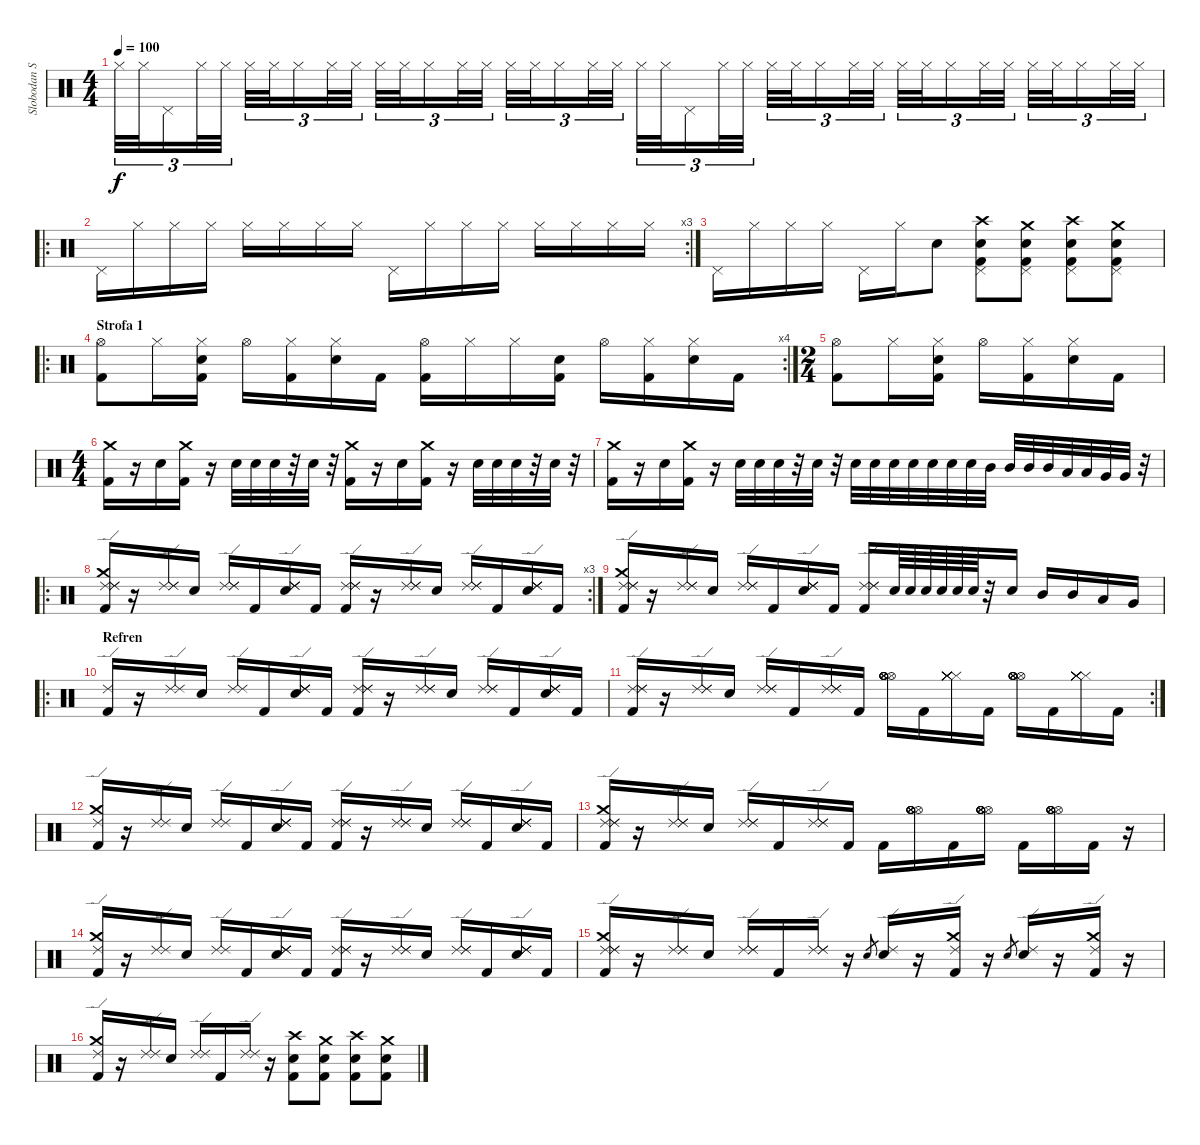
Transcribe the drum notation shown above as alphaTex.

\track ("Slobodan Stojanovic" "Slobodan S") {instrument percussion}
\staff {score}
\articulation defaults
\ts (4 4)
\tempo 100
\clef neutral
\ks c "Hi-Hat (closed)".32{tu (3 2) dy f} "Hi-Hat (closed)".32{tu (3 2)} "Pedal Hi-Hat (hit)".16{tu (3 2)} "Hi-Hat (closed)".32{tu (3 2)} "Hi-Hat (closed)".32{tu (3 2)} "Hi-Hat (closed)".32{tu (3 2)} "Hi-Hat (closed)".32{tu (3 2)} "Hi-Hat (closed)".16{tu (3 2)} "Hi-Hat (closed)".32{tu (3 2)} "Hi-Hat (closed)".32{tu (3 2)} "Hi-Hat (closed)".32{tu (3 2)} "Hi-Hat (closed)".32{tu (3 2)} "Hi-Hat (closed)".16{tu (3 2)} "Hi-Hat (closed)".32{tu (3 2)} "Hi-Hat (closed)".32{tu (3 2)} "Hi-Hat (closed)".32{tu (3 2)} "Hi-Hat (closed)".32{tu (3 2)} "Hi-Hat (closed)".16{tu (3 2)} "Hi-Hat (closed)".32{tu (3 2)} "Hi-Hat (closed)".32{tu (3 2)} "Hi-Hat (closed)".32{tu (3 2)} "Hi-Hat (closed)".32{tu (3 2)} "Pedal Hi-Hat (hit)".16{tu (3 2)} "Hi-Hat (closed)".32{tu (3 2)} "Hi-Hat (closed)".32{tu (3 2)} "Hi-Hat (closed)".32{tu (3 2)} "Hi-Hat (closed)".32{tu (3 2)} "Hi-Hat (closed)".16{tu (3 2)} "Hi-Hat (closed)".32{tu (3 2)} "Hi-Hat (closed)".32{tu (3 2)} "Hi-Hat (closed)".32{tu (3 2)} "Hi-Hat (closed)".32{tu (3 2)} "Hi-Hat (closed)".16{tu (3 2)} "Hi-Hat (closed)".32{tu (3 2)} "Hi-Hat (closed)".32{tu (3 2)} "Hi-Hat (closed)".32{tu (3 2)} "Hi-Hat (closed)".32{tu (3 2)} "Hi-Hat (closed)".16{tu (3 2)} "Hi-Hat (closed)".32{tu (3 2)} "Hi-Hat (closed)".32{tu (3 2)}
|
\ro
\rc 3 "Pedal Hi-Hat (hit)".16 "Hi-Hat (closed)".16 "Hi-Hat (closed)".16 "Hi-Hat (closed)".16 "Hi-Hat (closed)".16 "Hi-Hat (closed)".16 "Hi-Hat (closed)".16 "Hi-Hat (closed)".16 "Pedal Hi-Hat (hit)".16 "Hi-Hat (closed)".16 "Hi-Hat (closed)".16 "Hi-Hat (closed)".16 "Hi-Hat (closed)".16 "Hi-Hat (closed)".16 "Hi-Hat (closed)".16 "Hi-Hat (closed)".16
|
"Pedal Hi-Hat (hit)".16 "Hi-Hat (closed)".16 "Hi-Hat (closed)".16 "Hi-Hat (closed)".16 "Pedal Hi-Hat (hit)".16 "Hi-Hat (closed)".16 "Snare (hit) 2".8 ("Pedal Hi-Hat (hit)" "Kick (hit) 2" "Snare (hit) 2" "Crash high (hit)").8 ("Pedal Hi-Hat (hit)" "Kick (hit) 2" "Snare (hit) 2" "Crash medium (hit)").8 ("Pedal Hi-Hat (hit)" "Kick (hit) 2" "Snare (hit) 2" "Crash high (hit)").8 ("Pedal Hi-Hat (hit)" "Kick (hit) 2" "Snare (hit) 2" "Crash medium (hit)").8 |
\ro
\rc 4
\section ("" "Strofa 1")
("Hi-Hat (open)" "Kick (hit) 2").8 "Hi-Hat (closed)".16 ("Hi-Hat (closed)" "Snare (hit) 2" "Kick (hit) 2").16 "Hi-Hat (open)".16 ("Hi-Hat (closed)" "Kick (hit) 2").16 ("Hi-Hat (closed)" "Snare (hit) 2").16 "Kick (hit) 2".16 ("Hi-Hat (open)" "Kick (hit) 2").16 "Hi-Hat (closed)".16 "Hi-Hat (closed)".16 ("Snare (hit) 2" "Kick (hit) 2").16 "Hi-Hat (open)".16 ("Hi-Hat (closed)" "Kick (hit) 2").16 ("Hi-Hat (closed)" "Snare (hit) 2").16 "Kick (hit) 2".16 |
\ts (2 4)
("Hi-Hat (open)" "Kick (hit) 2").8 "Hi-Hat (closed)".16 ("Hi-Hat (closed)" "Snare (hit) 2" "Kick (hit) 2").16 "Hi-Hat (open)".16 ("Hi-Hat (closed)" "Kick (hit) 2").16 ("Hi-Hat (closed)" "Snare (hit) 2").16 "Kick (hit) 2".16 |
\ts (4 4)
("Kick (hit) 2" "Crash medium (hit)").16 r.16 "Snare (hit) 2".16 ("Kick (hit) 2" "Crash medium (hit)").16 r.16 "Snare (hit) 2".32 "Snare (hit) 2".32 "Snare (hit) 2".32 r.32 "Snare (hit) 2".32 r.32 ("Kick (hit) 2" "Crash medium (hit)").16 r.16 "Snare (hit) 2".16 ("Kick (hit) 2" "Crash medium (hit)").16 r.16 "Snare (hit) 2".32 "Snare (hit) 2".32 "Snare (hit) 2".32 r.32 "Snare (hit) 2".32 r.32 |
("Kick (hit) 2" "Crash medium (hit)").16 r.16 "Snare (hit) 2".16 ("Kick (hit) 2" "Crash medium (hit)").16 r.16 "Snare (hit) 2".32 "Snare (hit) 2".32 "Snare (hit) 2".32 r.32 "Snare (hit) 2".32 r.32 "Snare (hit) 2".32 "Snare (hit) 2".32 "Snare (hit) 2".32 "Snare (hit) 2".32 "Snare (hit) 2".32 "Snare (hit) 2".32 "Snare (hit) 2".32 "Mid Tom (hit)".32 "Mid Tom (hit)".32 "Mid Tom (hit)".32 "Mid Tom (hit)".32 "Low Tom (hit)".32 "Low Tom (hit)".32 "Very Low Tom (hit)".32 "Very Low Tom (hit)".32 r.32 |
\ro
\rc 3
("Crash medium (hit)" "Kick (hit) 2" "Ride (edge) 2" "Ride (edge) 2" "Ride (edge) 2").16 r.16 ("Ride (edge) 2" "Ride (edge) 2" "Ride (edge) 2").16 "Snare (hit) 2".16 ("Ride (edge) 2" "Ride (edge) 2" "Ride (edge) 2").16 "Kick (hit) 2".16 ("Snare (hit) 2" "Ride (edge) 2" "Ride (edge) 2" "Ride (edge) 2").16 "Kick (hit) 2".16 ("Kick (hit) 2" "Ride (edge) 2" "Ride (edge) 2" "Ride (edge) 2").16 r.16 ("Ride (edge) 2" "Ride (edge) 2" "Ride (edge) 2").16 "Snare (hit) 2".16 ("Ride (edge) 2" "Ride (edge) 2" "Ride (edge) 2").16 "Kick (hit) 2".16 ("Snare (hit) 2" "Ride (edge) 2" "Ride (edge) 2" "Ride (edge) 2").16 "Kick (hit) 2".16 |
("Crash medium (hit)" "Kick (hit) 2" "Ride (edge) 2" "Ride (edge) 2" "Ride (edge) 2").16 r.16 ("Ride (edge) 2" "Ride (edge) 2" "Ride (edge) 2").16 "Snare (hit) 2".16 ("Ride (edge) 2" "Ride (edge) 2" "Ride (edge) 2").16 "Kick (hit) 2".16 ("Snare (hit) 2" "Ride (edge) 2" "Ride (edge) 2" "Ride (edge) 2").16 "Kick (hit) 2".16 ("Kick (hit) 2" "Ride (edge) 2" "Ride (edge) 2" "Ride (edge) 2").16 "Snare (hit) 2".64 "Snare (hit) 2".64 "Snare (hit) 2".64 "Snare (hit) 2".64 "Snare (hit) 2".64 "Snare (hit) 2".64 r.32 "Snare (hit) 2".16 "Mid Tom (hit)".16 "Mid Tom (hit)".16 "Low Tom (hit)".16 "Very Low Tom (hit)".16 |
\ro
\section ("" "Refren")
("Kick (hit) 2" "Ride (edge) 2").16 r.16 ("Ride (edge) 2" "Ride (edge) 2").16 "Snare (hit) 2".16 ("Ride (edge) 2" "Ride (edge) 2").16 "Kick (hit) 2".16 ("Snare (hit) 2" "Ride (edge) 2" "Ride (edge) 2" "Ride (edge) 2").16 "Kick (hit) 2".16 ("Kick (hit) 2" "Ride (edge) 2" "Ride (edge) 2" "Ride (edge) 2").16 r.16 ("Ride (edge) 2" "Ride (edge) 2" "Ride (edge) 2").16 "Snare (hit) 2".16 ("Ride (edge) 2" "Ride (edge) 2" "Ride (edge) 2").16 "Kick (hit) 2".16 ("Snare (hit) 2" "Ride (edge) 2" "Ride (edge) 2" "Ride (edge) 2").16 "Kick (hit) 2".16 |
\rc 2
("Kick (hit) 2" "Ride (edge) 2" "Ride (edge) 2" "Ride (edge) 2").16 r.16 ("Ride (edge) 2" "Ride (edge) 2" "Ride (edge) 2").16 "Snare (hit) 2".16 ("Ride (edge) 2" "Ride (edge) 2" "Ride (edge) 2").16 "Kick (hit) 2".16 ("Ride (edge) 2" "Ride (edge) 2" "Ride (edge) 2").16 "Kick (hit) 2".16 ("Hi-Hat (open)" "Hi-Hat (open)" "Hi-Hat (open)" "Hi-Hat (open)" "Hi-Hat (open)" "Hi-Hat (open)").16 "Kick (hit) 2".16 ("Hi-Hat (closed)" "Hi-Hat (closed)" "Hi-Hat (closed)" "Hi-Hat (closed)" "Hi-Hat (closed)" "Hi-Hat (closed)").16 "Kick (hit) 2".16 ("Hi-Hat (open)" "Hi-Hat (open)" "Hi-Hat (open)" "Hi-Hat (open)" "Hi-Hat (open)" "Hi-Hat (open)").16 "Kick (hit) 2".16 ("Hi-Hat (closed)" "Hi-Hat (closed)" "Hi-Hat (closed)" "Hi-Hat (closed)" "Hi-Hat (closed)" "Hi-Hat (closed)").16 "Kick (hit) 2".16 |
("Crash medium (hit)" "Kick (hit) 2" "Ride (edge) 2").16 r.16 ("Ride (edge) 2" "Ride (edge) 2").16 "Snare (hit) 2".16 ("Ride (edge) 2" "Ride (edge) 2").16 "Kick (hit) 2".16 ("Snare (hit) 2" "Ride (edge) 2" "Ride (edge) 2" "Ride (edge) 2").16 "Kick (hit) 2".16 ("Kick (hit) 2" "Ride (edge) 2" "Ride (edge) 2" "Ride (edge) 2").16 r.16 ("Ride (edge) 2" "Ride (edge) 2" "Ride (edge) 2").16 "Snare (hit) 2".16 ("Ride (edge) 2" "Ride (edge) 2" "Ride (edge) 2").16 "Kick (hit) 2".16 ("Snare (hit) 2" "Ride (edge) 2" "Ride (edge) 2" "Ride (edge) 2").16 "Kick (hit) 2".16 |
("Crash medium (hit)" "Kick (hit) 2" "Ride (edge) 2" "Ride (edge) 2" "Ride (edge) 2").16 r.16 ("Ride (edge) 2" "Ride (edge) 2" "Ride (edge) 2").16 "Snare (hit) 2".16 ("Ride (edge) 2" "Ride (edge) 2" "Ride (edge) 2").16 "Kick (hit) 2".16 ("Ride (edge) 2" "Ride (edge) 2" "Ride (edge) 2").16 "Kick (hit) 2".16 "Kick (hit) 2".16 ("Hi-Hat (open)" "Hi-Hat (open)" "Hi-Hat (open)" "Hi-Hat (open)" "Hi-Hat (open)" "Hi-Hat (open)").16 "Kick (hit) 2".16 ("Hi-Hat (open)" "Hi-Hat (open)" "Hi-Hat (open)" "Hi-Hat (open)" "Hi-Hat (open)" "Hi-Hat (open)").16 "Kick (hit) 2".16 ("Hi-Hat (open)" "Hi-Hat (open)" "Hi-Hat (open)" "Hi-Hat (open)" "Hi-Hat (open)" "Hi-Hat (open)").16 "Kick (hit) 2".16 r.16 |
("Crash medium (hit)" "Kick (hit) 2" "Ride (edge) 2").16 r.16 ("Ride (edge) 2" "Ride (edge) 2").16 "Snare (hit) 2".16 ("Ride (edge) 2" "Ride (edge) 2").16 "Kick (hit) 2".16 ("Snare (hit) 2" "Ride (edge) 2" "Ride (edge) 2" "Ride (edge) 2").16 "Kick (hit) 2".16 ("Kick (hit) 2" "Ride (edge) 2" "Ride (edge) 2" "Ride (edge) 2").16 r.16 ("Ride (edge) 2" "Ride (edge) 2" "Ride (edge) 2").16 "Snare (hit) 2".16 ("Ride (edge) 2" "Ride (edge) 2" "Ride (edge) 2").16 "Kick (hit) 2".16 ("Snare (hit) 2" "Ride (edge) 2" "Ride (edge) 2" "Ride (edge) 2").16 "Kick (hit) 2".16 |
("Crash medium (hit)" "Kick (hit) 2" "Ride (edge) 2" "Ride (edge) 2" "Ride (edge) 2").16 r.16 ("Ride (edge) 2" "Ride (edge) 2" "Ride (edge) 2").16 "Snare (hit) 2".16 ("Ride (edge) 2" "Ride (edge) 2" "Ride (edge) 2").16 "Kick (hit) 2".16 ("Ride (edge) 2" "Ride (edge) 2" "Ride (edge) 2").16 r.16 "Snare (hit) 2".8{gr} ("Snare (hit) 2" "Ride (edge) 2").16 r.16 ("Crash medium (hit)" "Kick (hit) 2" "Ride (edge) 2").16 r.16 "Snare (hit) 2".8{gr} ("Snare (hit) 2" "Ride (edge) 2").16 r.16 ("Crash medium (hit)" "Kick (hit) 2" "Ride (edge) 2").16 r.16 |
("Crash medium (hit)" "Kick (hit) 2" "Ride (edge) 2").16 r.16 ("Ride (edge) 2" "Ride (edge) 2").16 "Snare (hit) 2".16 ("Ride (edge) 2" "Ride (edge) 2").16 "Kick (hit) 2".16 ("Ride (edge) 2" "Ride (edge) 2").16 r.16 ("Kick (hit) 2" "Snare (hit) 2" "Crash high (hit)").8 ("Kick (hit) 2" "Snare (hit) 2" "Crash medium (hit)").8 ("Kick (hit) 2" "Snare (hit) 2" "Crash high (hit)").8 ("Kick (hit) 2" "Snare (hit) 2" "Crash medium (hit)").8
